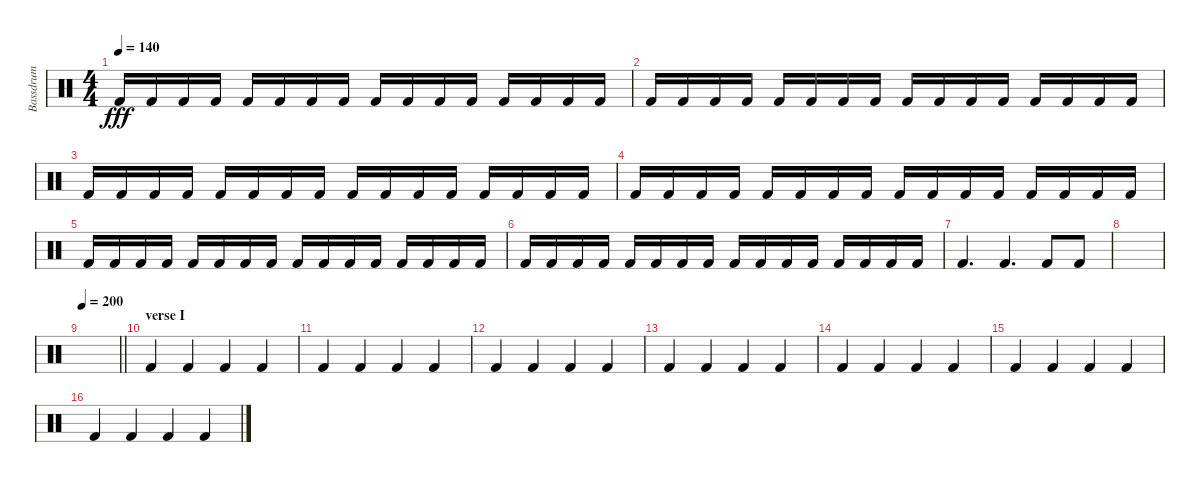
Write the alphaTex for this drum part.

\track ("Bassdrum" "Bassdrum") {instrument percussion}
\staff {score}
\articulation defaults
\ts (4 4)
\tempo 140
\clef neutral
\ks c "Kick (hit) 2".16{dy fff} "Kick (hit) 2".16 "Kick (hit) 2".16 "Kick (hit) 2".16 "Kick (hit) 2".16 "Kick (hit) 2".16 "Kick (hit) 2".16 "Kick (hit) 2".16 "Kick (hit) 2".16 "Kick (hit) 2".16 "Kick (hit) 2".16 "Kick (hit) 2".16 "Kick (hit) 2".16 "Kick (hit) 2".16 "Kick (hit) 2".16 "Kick (hit) 2".16
|
"Kick (hit) 2".16 "Kick (hit) 2".16 "Kick (hit) 2".16 "Kick (hit) 2".16 "Kick (hit) 2".16 "Kick (hit) 2".16 "Kick (hit) 2".16 "Kick (hit) 2".16 "Kick (hit) 2".16 "Kick (hit) 2".16 "Kick (hit) 2".16 "Kick (hit) 2".16 "Kick (hit) 2".16 "Kick (hit) 2".16 "Kick (hit) 2".16 "Kick (hit) 2".16 |
"Kick (hit) 2".16 "Kick (hit) 2".16 "Kick (hit) 2".16 "Kick (hit) 2".16 "Kick (hit) 2".16 "Kick (hit) 2".16 "Kick (hit) 2".16 "Kick (hit) 2".16 "Kick (hit) 2".16 "Kick (hit) 2".16 "Kick (hit) 2".16 "Kick (hit) 2".16 "Kick (hit) 2".16 "Kick (hit) 2".16 "Kick (hit) 2".16 "Kick (hit) 2".16 |
"Kick (hit) 2".16 "Kick (hit) 2".16 "Kick (hit) 2".16 "Kick (hit) 2".16 "Kick (hit) 2".16 "Kick (hit) 2".16 "Kick (hit) 2".16 "Kick (hit) 2".16 "Kick (hit) 2".16 "Kick (hit) 2".16 "Kick (hit) 2".16 "Kick (hit) 2".16 "Kick (hit) 2".16 "Kick (hit) 2".16 "Kick (hit) 2".16 "Kick (hit) 2".16 |
"Kick (hit) 2".16 "Kick (hit) 2".16 "Kick (hit) 2".16 "Kick (hit) 2".16 "Kick (hit) 2".16 "Kick (hit) 2".16 "Kick (hit) 2".16 "Kick (hit) 2".16 "Kick (hit) 2".16 "Kick (hit) 2".16 "Kick (hit) 2".16 "Kick (hit) 2".16 "Kick (hit) 2".16 "Kick (hit) 2".16 "Kick (hit) 2".16 "Kick (hit) 2".16 |
"Kick (hit) 2".16 "Kick (hit) 2".16 "Kick (hit) 2".16 "Kick (hit) 2".16 "Kick (hit) 2".16 "Kick (hit) 2".16 "Kick (hit) 2".16 "Kick (hit) 2".16 "Kick (hit) 2".16 "Kick (hit) 2".16 "Kick (hit) 2".16 "Kick (hit) 2".16 "Kick (hit) 2".16 "Kick (hit) 2".16 "Kick (hit) 2".16 "Kick (hit) 2".16 |
"Kick (hit) 2".4{d} "Kick (hit) 2".4{d} "Kick (hit) 2".8 "Kick (hit) 2".8 |
|
\tempo 200
\barLineRight lightlight
|
\section ("" "verse I")
"Kick (hit) 2".4 "Kick (hit) 2".4 "Kick (hit) 2".4 "Kick (hit) 2".4 |
"Kick (hit) 2".4 "Kick (hit) 2".4 "Kick (hit) 2".4 "Kick (hit) 2".4 |
"Kick (hit) 2".4 "Kick (hit) 2".4 "Kick (hit) 2".4 "Kick (hit) 2".4 |
"Kick (hit) 2".4 "Kick (hit) 2".4 "Kick (hit) 2".4 "Kick (hit) 2".4 |
"Kick (hit) 2".4 "Kick (hit) 2".4 "Kick (hit) 2".4 "Kick (hit) 2".4 |
"Kick (hit) 2".4 "Kick (hit) 2".4 "Kick (hit) 2".4 "Kick (hit) 2".4 |
"Kick (hit) 2".4 "Kick (hit) 2".4 "Kick (hit) 2".4 "Kick (hit) 2".4
